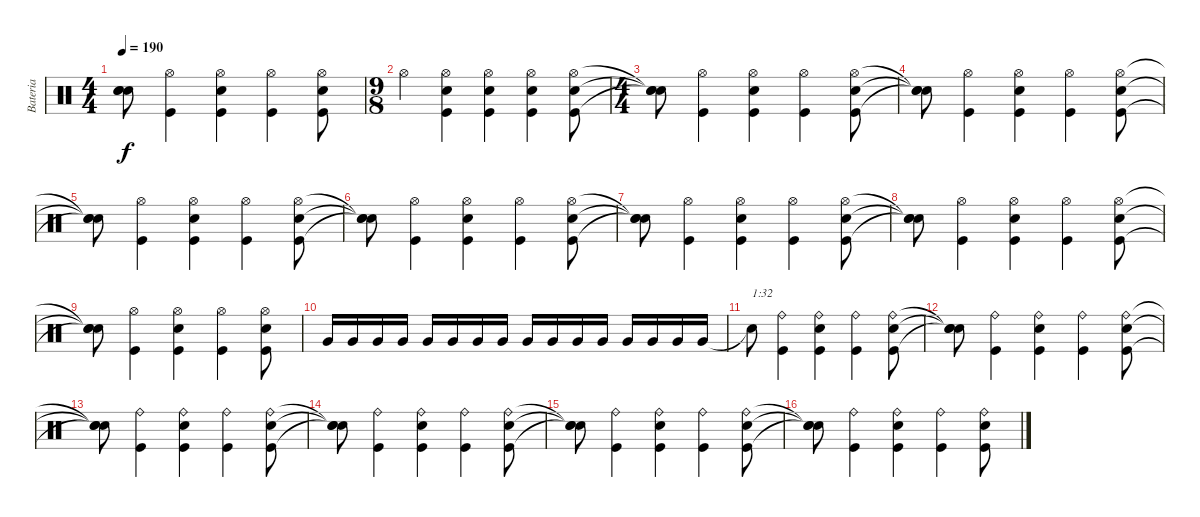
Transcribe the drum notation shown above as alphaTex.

\track ("Bateria" "Bateria") {instrument percussion}
\staff {score}
\articulation defaults
\ts (4 4)
\tempo 190
\clef neutral
\ks c
("Snare (hit)"{t} "Snare (hit)"{t} "Snare (hit)"{t}).8{dy f} ("Kick (hit)" "Hi-Hat (open)").4 ("Kick (hit)" "Snare (hit) 2" "Hi-Hat (open)").4 ("Kick (hit)" "Hi-Hat (open)").4 ("Kick (hit)" "Snare (hit) 2" "Hi-Hat (open)").8 |
\ts (9 8)
"Hi-Hat (open)".4 ("Kick (hit)" "Snare (hit) 2" "Hi-Hat (open)").4 ("Kick (hit)" "Snare (hit) 2" "Hi-Hat (open)").4 ("Kick (hit)" "Snare (hit) 2" "Hi-Hat (open)").4 ("Kick (hit)" "Snare (hit) 2" "Hi-Hat (open)").8 |
\ts (4 4)
("Snare (hit)"{t} "Snare (hit)"{t} "Snare (hit)"{t}).8 ("Kick (hit)" "Hi-Hat (open)").4 ("Kick (hit)" "Snare (hit) 2" "Hi-Hat (open)").4 ("Kick (hit)" "Hi-Hat (open)").4 ("Kick (hit)" "Snare (hit) 2" "Hi-Hat (open)").8 |
("Snare (hit)"{t} "Snare (hit)"{t} "Snare (hit)"{t}).8 ("Kick (hit)" "Hi-Hat (open)").4 ("Kick (hit)" "Snare (hit) 2" "Hi-Hat (open)").4 ("Kick (hit)" "Hi-Hat (open)").4 ("Kick (hit)" "Snare (hit) 2" "Hi-Hat (open)").8 |
("Snare (hit)"{t} "Snare (hit)"{t} "Snare (hit)"{t}).8 ("Kick (hit)" "Hi-Hat (open)").4 ("Kick (hit)" "Snare (hit) 2" "Hi-Hat (open)").4 ("Kick (hit)" "Hi-Hat (open)").4 ("Kick (hit)" "Snare (hit) 2" "Hi-Hat (open)").8 |
("Snare (hit)"{t} "Snare (hit)"{t} "Snare (hit)"{t}).8 ("Kick (hit)" "Hi-Hat (open)").4 ("Kick (hit)" "Snare (hit) 2" "Hi-Hat (open)").4 ("Kick (hit)" "Hi-Hat (open)").4 ("Kick (hit)" "Snare (hit) 2" "Hi-Hat (open)").8 |
("Snare (hit)"{t} "Snare (hit)"{t} "Snare (hit)"{t}).8 ("Kick (hit)" "Hi-Hat (open)").4 ("Kick (hit)" "Snare (hit) 2" "Hi-Hat (open)").4 ("Kick (hit)" "Hi-Hat (open)").4 ("Kick (hit)" "Snare (hit) 2" "Hi-Hat (open)").8 |
("Snare (hit)"{t} "Snare (hit)"{t} "Snare (hit)"{t}).8 ("Kick (hit)" "Hi-Hat (open)").4 ("Kick (hit)" "Snare (hit) 2" "Hi-Hat (open)").4 ("Kick (hit)" "Hi-Hat (open)").4 ("Kick (hit)" "Snare (hit) 2" "Hi-Hat (open)").8 |
("Snare (hit)"{t} "Snare (hit)"{t} "Snare (hit)"{t}).8 ("Kick (hit)" "Hi-Hat (open)").4 ("Kick (hit)" "Snare (hit) 2" "Hi-Hat (open)").4 ("Kick (hit)" "Hi-Hat (open)").4 ("Kick (hit)" "Snare (hit) 2" "Hi-Hat (open)").8 |
"Very Low Tom (hit)".16 "Very Low Tom (hit)".16 "Very Low Tom (hit)".16 "Very Low Tom (hit)".16 "Very Low Tom (hit)".16 "Very Low Tom (hit)".16 "Very Low Tom (hit)".16 "Very Low Tom (hit)".16 "Very Low Tom (hit)".16 "Very Low Tom (hit)".16 "Very Low Tom (hit)".16 "Very Low Tom (hit)".16 "Very Low Tom (hit)".16 "Very Low Tom (hit)".16 "Very Low Tom (hit)".16 "Very Low Tom (hit)".16 |
"Snare (hit)"{t}.8{txt "1:32"} ("Kick (hit)" "Ride (bell)").4 ("Kick (hit)" "Snare (hit) 2" "Ride (bell)").4 ("Kick (hit)" "Ride (bell)").4 ("Kick (hit)" "Snare (hit) 2" "Ride (bell)").8 |
("Snare (hit)"{t} "Snare (hit)"{t} "Snare (hit)"{t}).8 ("Kick (hit)" "Ride (bell)").4 ("Kick (hit)" "Snare (hit) 2" "Ride (bell)").4 ("Kick (hit)" "Ride (bell)").4 ("Kick (hit)" "Snare (hit) 2" "Ride (bell)").8 |
("Snare (hit)"{t} "Snare (hit)"{t} "Snare (hit)"{t}).8 ("Kick (hit)" "Ride (bell)").4 ("Kick (hit)" "Snare (hit) 2" "Ride (bell)").4 ("Kick (hit)" "Ride (bell)").4 ("Kick (hit)" "Snare (hit) 2" "Ride (bell)").8 |
("Snare (hit)"{t} "Snare (hit)"{t} "Snare (hit)"{t}).8 ("Kick (hit)" "Ride (bell)").4 ("Kick (hit)" "Snare (hit) 2" "Ride (bell)").4 ("Kick (hit)" "Ride (bell)").4 ("Kick (hit)" "Snare (hit) 2" "Ride (bell)").8 |
("Snare (hit)"{t} "Snare (hit)"{t} "Snare (hit)"{t}).8 ("Kick (hit)" "Ride (bell)").4 ("Kick (hit)" "Snare (hit) 2" "Ride (bell)").4 ("Kick (hit)" "Ride (bell)").4 ("Kick (hit)" "Snare (hit) 2" "Ride (bell)").8 |
("Snare (hit)"{t} "Snare (hit)"{t} "Snare (hit)"{t}).8 ("Kick (hit)" "Ride (bell)").4 ("Kick (hit)" "Snare (hit) 2" "Ride (bell)").4 ("Kick (hit)" "Ride (bell)").4 ("Kick (hit)" "Snare (hit) 2" "Ride (bell)").8
